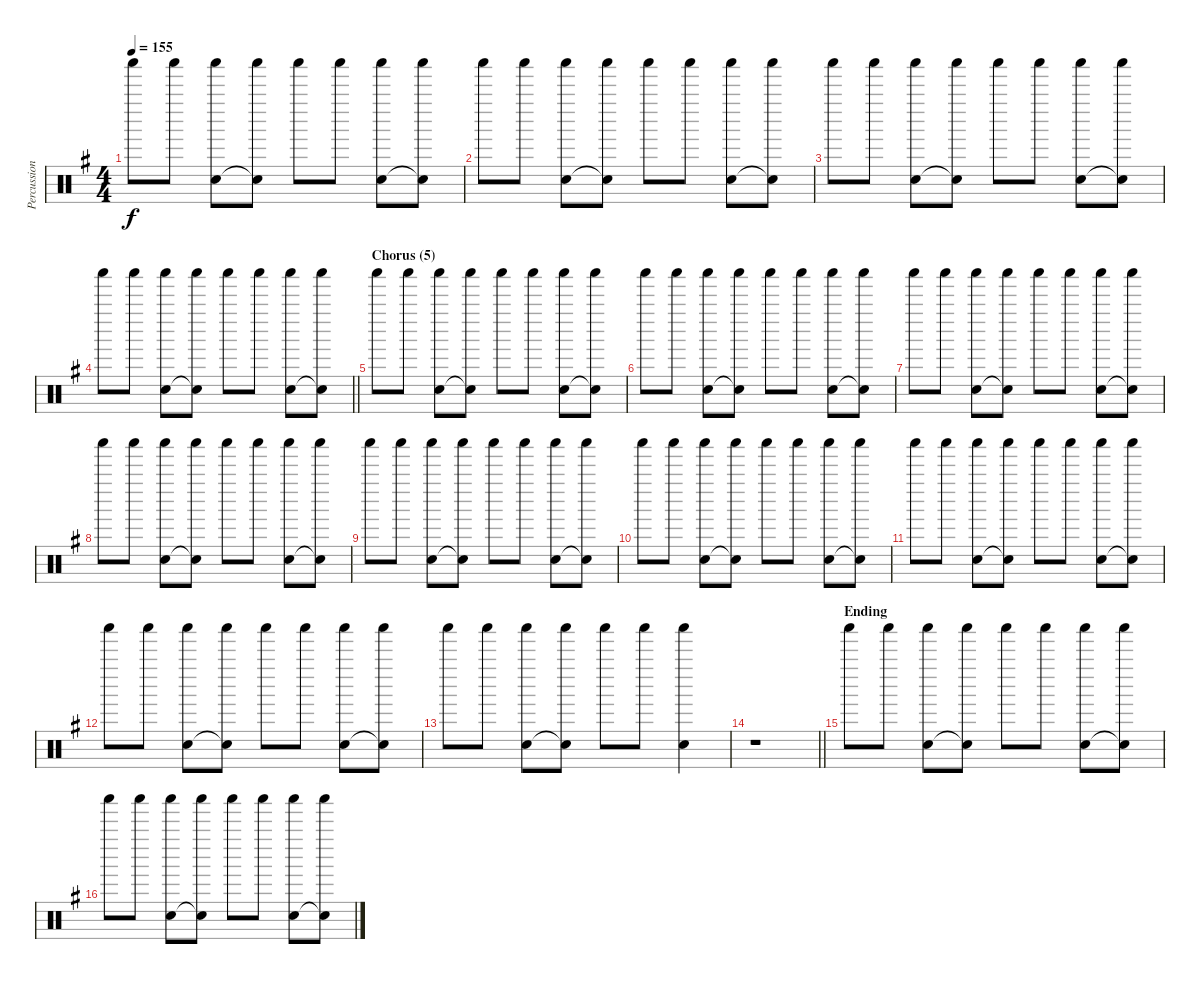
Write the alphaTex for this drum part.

\track ("Percussion" "Percussion") {instrument percussion}
\staff {score}
\articulation defaults
\ts (4 4)
\tempo 155
\clef neutral
\ks eminor "Shaker (hit)".8{dy f} "Shaker (hit)".8
("Hand Clap (hit)" "Shaker (hit)").8 ("Snare (hit)"{t} "Shaker (hit)").8 "Shaker (hit)".8 "Shaker (hit)".8 ("Hand Clap (hit)" "Shaker (hit)").8 ("Snare (hit)"{t} "Shaker (hit)").8 |
"Shaker (hit)".8 "Shaker (hit)".8 ("Hand Clap (hit)" "Shaker (hit)").8 ("Snare (hit)"{t} "Shaker (hit)").8 "Shaker (hit)".8 "Shaker (hit)".8 ("Hand Clap (hit)" "Shaker (hit)").8 ("Snare (hit)"{t} "Shaker (hit)").8 |
"Shaker (hit)".8 "Shaker (hit)".8 ("Hand Clap (hit)" "Shaker (hit)").8 ("Snare (hit)"{t} "Shaker (hit)").8 "Shaker (hit)".8 "Shaker (hit)".8 ("Hand Clap (hit)" "Shaker (hit)").8 ("Snare (hit)"{t} "Shaker (hit)").8 |
\barLineRight lightlight "Shaker (hit)".8 "Shaker (hit)".8
("Hand Clap (hit)" "Shaker (hit)").8 ("Snare (hit)"{t} "Shaker (hit)").8 "Shaker (hit)".8 "Shaker (hit)".8 ("Hand Clap (hit)" "Shaker (hit)").8 ("Snare (hit)"{t} "Shaker (hit)").8 |
\section ("" "Chorus (5)")
"Shaker (hit)".8 "Shaker (hit)".8 ("Hand Clap (hit)" "Shaker (hit)").8 ("Snare (hit)"{t} "Shaker (hit)").8 "Shaker (hit)".8 "Shaker (hit)".8 ("Hand Clap (hit)" "Shaker (hit)").8 ("Snare (hit)"{t} "Shaker (hit)").8 |
"Shaker (hit)".8 "Shaker (hit)".8 ("Hand Clap (hit)" "Shaker (hit)").8 ("Snare (hit)"{t} "Shaker (hit)").8 "Shaker (hit)".8 "Shaker (hit)".8 ("Hand Clap (hit)" "Shaker (hit)").8 ("Snare (hit)"{t} "Shaker (hit)").8 |
"Shaker (hit)".8 "Shaker (hit)".8 ("Hand Clap (hit)" "Shaker (hit)").8 ("Snare (hit)"{t} "Shaker (hit)").8 "Shaker (hit)".8 "Shaker (hit)".8 ("Hand Clap (hit)" "Shaker (hit)").8 ("Snare (hit)"{t} "Shaker (hit)").8 |
"Shaker (hit)".8 "Shaker (hit)".8 ("Hand Clap (hit)" "Shaker (hit)").8 ("Snare (hit)"{t} "Shaker (hit)").8 "Shaker (hit)".8 "Shaker (hit)".8 ("Hand Clap (hit)" "Shaker (hit)").8 ("Snare (hit)"{t} "Shaker (hit)").8 |
"Shaker (hit)".8 "Shaker (hit)".8 ("Hand Clap (hit)" "Shaker (hit)").8 ("Snare (hit)"{t} "Shaker (hit)").8 "Shaker (hit)".8 "Shaker (hit)".8 ("Hand Clap (hit)" "Shaker (hit)").8 ("Snare (hit)"{t} "Shaker (hit)").8 |
"Shaker (hit)".8 "Shaker (hit)".8 ("Hand Clap (hit)" "Shaker (hit)").8 ("Snare (hit)"{t} "Shaker (hit)").8 "Shaker (hit)".8 "Shaker (hit)".8 ("Hand Clap (hit)" "Shaker (hit)").8 ("Snare (hit)"{t} "Shaker (hit)").8 |
"Shaker (hit)".8 "Shaker (hit)".8 ("Hand Clap (hit)" "Shaker (hit)").8 ("Snare (hit)"{t} "Shaker (hit)").8 "Shaker (hit)".8 "Shaker (hit)".8 ("Hand Clap (hit)" "Shaker (hit)").8 ("Snare (hit)"{t} "Shaker (hit)").8 |
"Shaker (hit)".8 "Shaker (hit)".8 ("Hand Clap (hit)" "Shaker (hit)").8 ("Snare (hit)"{t} "Shaker (hit)").8 "Shaker (hit)".8 "Shaker (hit)".8 ("Hand Clap (hit)" "Shaker (hit)").8 ("Snare (hit)"{t} "Shaker (hit)").8 |
"Shaker (hit)".8 "Shaker (hit)".8 ("Hand Clap (hit)" "Shaker (hit)").8 ("Snare (hit)"{t} "Shaker (hit)").8 "Shaker (hit)".8 "Shaker (hit)".8 ("Hand Clap (hit)" "Shaker (hit)").4 |
\barLineRight lightlight
r.1 |
\section ("" "Ending")
"Shaker (hit)".8 "Shaker (hit)".8 ("Hand Clap (hit)" "Shaker (hit)").8 ("Snare (hit)"{t} "Shaker (hit)").8 "Shaker (hit)".8 "Shaker (hit)".8 ("Hand Clap (hit)" "Shaker (hit)").8 ("Snare (hit)"{t} "Shaker (hit)").8 |
"Shaker (hit)".8 "Shaker (hit)".8 ("Hand Clap (hit)" "Shaker (hit)").8 ("Snare (hit)"{t} "Shaker (hit)").8 "Shaker (hit)".8 "Shaker (hit)".8 ("Hand Clap (hit)" "Shaker (hit)").8 ("Snare (hit)"{t} "Shaker (hit)").8
